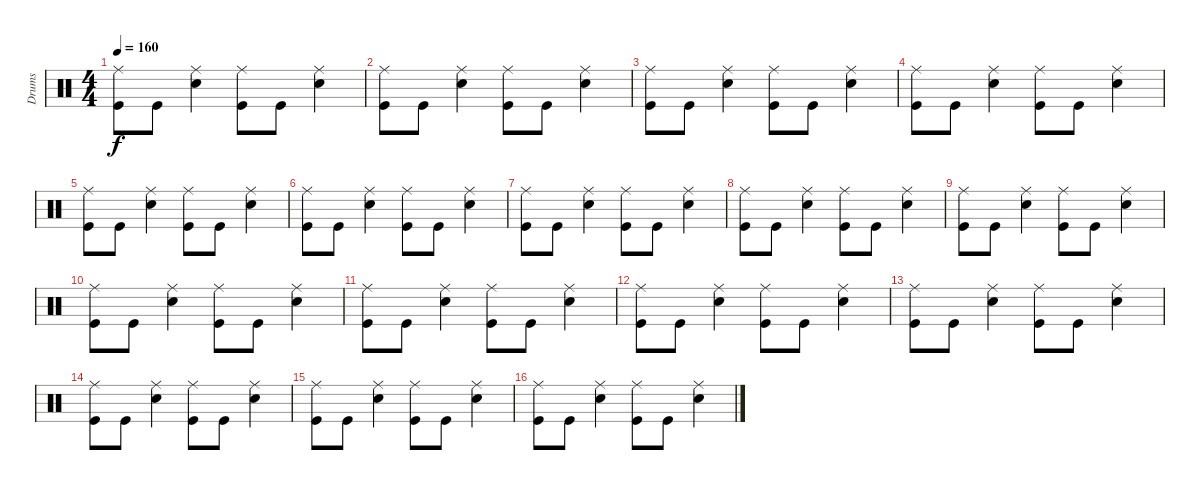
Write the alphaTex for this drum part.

\track ("Drums" "Drums") {instrument percussion}
\staff {score}
\articulation defaults
\ts (4 4)
\tempo 160
\clef neutral
\ks c
("Ride (middle)" "Kick (hit)").8{dy f} "Kick (hit)".8 ("Ride (middle)" "Snare (hit) 2").4 ("Ride (middle)" "Kick (hit)").8 "Kick (hit)".8 ("Ride (middle)" "Snare (hit) 2").4 |
("Ride (middle)" "Kick (hit)").8 "Kick (hit)".8 ("Ride (middle)" "Snare (hit) 2").4 ("Ride (middle)" "Kick (hit)").8 "Kick (hit)".8 ("Ride (middle)" "Snare (hit) 2").4 |
("Ride (middle)" "Kick (hit)").8 "Kick (hit)".8 ("Ride (middle)" "Snare (hit) 2").4 ("Ride (middle)" "Kick (hit)").8 "Kick (hit)".8 ("Ride (middle)" "Snare (hit) 2").4 |
("Ride (middle)" "Kick (hit)").8 "Kick (hit)".8 ("Ride (middle)" "Snare (hit) 2").4 ("Ride (middle)" "Kick (hit)").8 "Kick (hit)".8 ("Ride (middle)" "Snare (hit) 2").4 |
("Ride (middle)" "Kick (hit)").8 "Kick (hit)".8 ("Ride (middle)" "Snare (hit) 2").4 ("Ride (middle)" "Kick (hit)").8 "Kick (hit)".8 ("Ride (middle)" "Snare (hit) 2").4 |
("Ride (middle)" "Kick (hit)").8 "Kick (hit)".8 ("Ride (middle)" "Snare (hit) 2").4 ("Ride (middle)" "Kick (hit)").8 "Kick (hit)".8 ("Ride (middle)" "Snare (hit) 2").4 |
("Ride (middle)" "Kick (hit)").8 "Kick (hit)".8 ("Ride (middle)" "Snare (hit) 2").4 ("Ride (middle)" "Kick (hit)").8 "Kick (hit)".8 ("Ride (middle)" "Snare (hit) 2").4 |
("Ride (middle)" "Kick (hit)").8 "Kick (hit)".8 ("Ride (middle)" "Snare (hit) 2").4 ("Ride (middle)" "Kick (hit)").8 "Kick (hit)".8 ("Ride (middle)" "Snare (hit) 2").4 |
("Ride (middle)" "Kick (hit)").8 "Kick (hit)".8 ("Ride (middle)" "Snare (hit) 2").4 ("Ride (middle)" "Kick (hit)").8 "Kick (hit)".8 ("Ride (middle)" "Snare (hit) 2").4 |
("Ride (middle)" "Kick (hit)").8 "Kick (hit)".8 ("Ride (middle)" "Snare (hit) 2").4 ("Ride (middle)" "Kick (hit)").8 "Kick (hit)".8 ("Ride (middle)" "Snare (hit) 2").4 |
("Ride (middle)" "Kick (hit)").8 "Kick (hit)".8 ("Ride (middle)" "Snare (hit) 2").4 ("Ride (middle)" "Kick (hit)").8 "Kick (hit)".8 ("Ride (middle)" "Snare (hit) 2").4 |
("Ride (middle)" "Kick (hit)").8 "Kick (hit)".8 ("Ride (middle)" "Snare (hit) 2").4 ("Ride (middle)" "Kick (hit)").8 "Kick (hit)".8 ("Ride (middle)" "Snare (hit) 2").4 |
("Ride (middle)" "Kick (hit)").8 "Kick (hit)".8 ("Ride (middle)" "Snare (hit) 2").4 ("Ride (middle)" "Kick (hit)").8 "Kick (hit)".8 ("Ride (middle)" "Snare (hit) 2").4 |
("Ride (middle)" "Kick (hit)").8 "Kick (hit)".8 ("Ride (middle)" "Snare (hit) 2").4 ("Ride (middle)" "Kick (hit)").8 "Kick (hit)".8 ("Ride (middle)" "Snare (hit) 2").4 |
("Ride (middle)" "Kick (hit)").8 "Kick (hit)".8 ("Ride (middle)" "Snare (hit) 2").4 ("Ride (middle)" "Kick (hit)").8 "Kick (hit)".8 ("Ride (middle)" "Snare (hit) 2").4 |
("Ride (middle)" "Kick (hit)").8 "Kick (hit)".8 ("Ride (middle)" "Snare (hit) 2").4 ("Ride (middle)" "Kick (hit)").8 "Kick (hit)".8 ("Ride (middle)" "Snare (hit) 2").4
